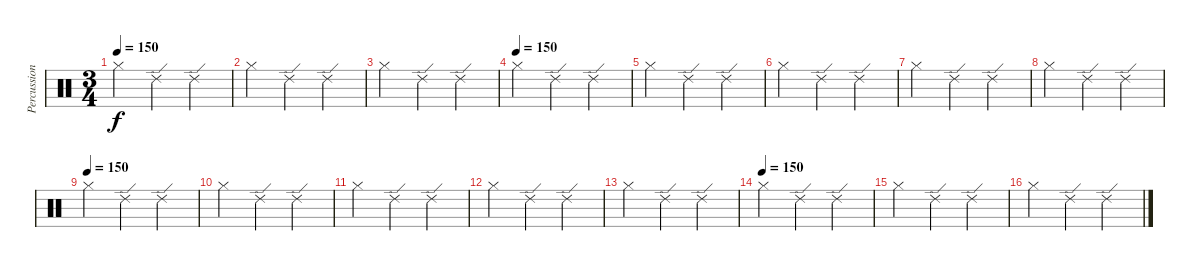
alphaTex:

\track ("Percussion" "Percussion") {instrument percussion}
\staff {score}
\articulation defaults
\ts (3 4)
\tempo 150
\clef neutral
\ks c "Hi-Hat (closed)".4{dy f} "Ride (edge) 2".4 "Ride (edge) 2".4
|
"Hi-Hat (closed)".4 "Ride (edge) 2".4 "Ride (edge) 2".4 |
"Hi-Hat (closed)".4 "Ride (edge) 2".4 "Ride (edge) 2".4 |
\tempo (150)
"Hi-Hat (closed)".4 "Ride (edge) 2".4 "Ride (edge) 2".4 |
"Hi-Hat (closed)".4 "Ride (edge) 2".4 "Ride (edge) 2".4 |
"Hi-Hat (closed)".4 "Ride (edge) 2".4 "Ride (edge) 2".4 |
"Hi-Hat (closed)".4 "Ride (edge) 2".4 "Ride (edge) 2".4 |
"Hi-Hat (closed)".4 "Ride (edge) 2".4 "Ride (edge) 2".4 |
\tempo (150)
"Hi-Hat (closed)".4 "Ride (edge) 2".4 "Ride (edge) 2".4 |
"Hi-Hat (closed)".4 "Ride (edge) 2".4 "Ride (edge) 2".4 |
"Hi-Hat (closed)".4 "Ride (edge) 2".4 "Ride (edge) 2".4 |
"Hi-Hat (closed)".4 "Ride (edge) 2".4 "Ride (edge) 2".4 |
"Hi-Hat (closed)".4 "Ride (edge) 2".4 "Ride (edge) 2".4 |
\tempo (150)
"Hi-Hat (closed)".4 "Ride (edge) 2".4 "Ride (edge) 2".4 |
"Hi-Hat (closed)".4 "Ride (edge) 2".4 "Ride (edge) 2".4 |
"Hi-Hat (closed)".4 "Ride (edge) 2".4 "Ride (edge) 2".4
